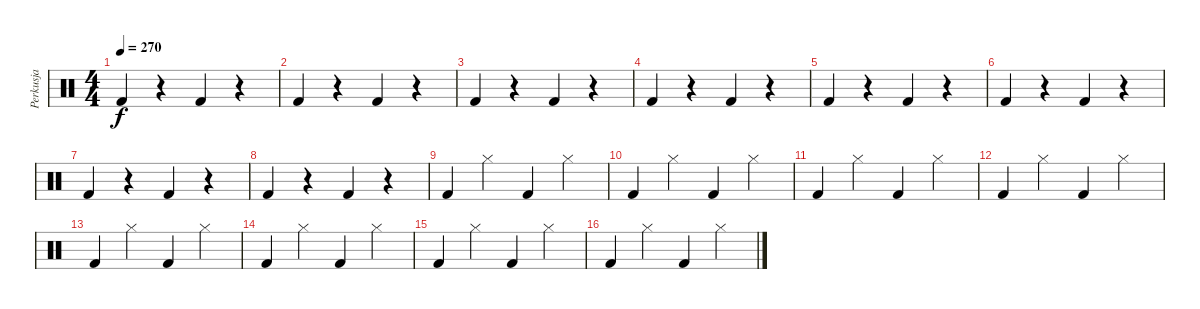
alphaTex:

\track ("Perkusja" "Perkusja") {instrument percussion}
\staff {score}
\articulation defaults
\ts (4 4)
\tempo 270
\clef neutral
\ks c "Kick (hit) 2".4{dy f}
r.4 "Kick (hit) 2".4 r.4 |
"Kick (hit) 2".4 r.4 "Kick (hit) 2".4 r.4 |
"Kick (hit) 2".4 r.4 "Kick (hit) 2".4 r.4 |
"Kick (hit) 2".4 r.4 "Kick (hit) 2".4 r.4 |
"Kick (hit) 2".4 r.4 "Kick (hit) 2".4 r.4 |
"Kick (hit) 2".4 r.4 "Kick (hit) 2".4 r.4 |
"Kick (hit) 2".4 r.4 "Kick (hit) 2".4 r.4 |
"Kick (hit) 2".4 r.4 "Kick (hit) 2".4 r.4 |
"Kick (hit) 2".4 "Hi-Hat (closed)".4 "Kick (hit) 2".4 "Hi-Hat (closed)".4 |
"Kick (hit) 2".4 "Hi-Hat (closed)".4 "Kick (hit) 2".4 "Hi-Hat (closed)".4 |
"Kick (hit) 2".4 "Hi-Hat (closed)".4 "Kick (hit) 2".4 "Hi-Hat (closed)".4 |
"Kick (hit) 2".4 "Hi-Hat (closed)".4 "Kick (hit) 2".4 "Hi-Hat (closed)".4 |
"Kick (hit) 2".4 "Hi-Hat (closed)".4 "Kick (hit) 2".4 "Hi-Hat (closed)".4 |
"Kick (hit) 2".4 "Hi-Hat (closed)".4 "Kick (hit) 2".4 "Hi-Hat (closed)".4 |
"Kick (hit) 2".4 "Hi-Hat (closed)".4 "Kick (hit) 2".4 "Hi-Hat (closed)".4 |
"Kick (hit) 2".4 "Hi-Hat (closed)".4 "Kick (hit) 2".4 "Hi-Hat (closed)".4
